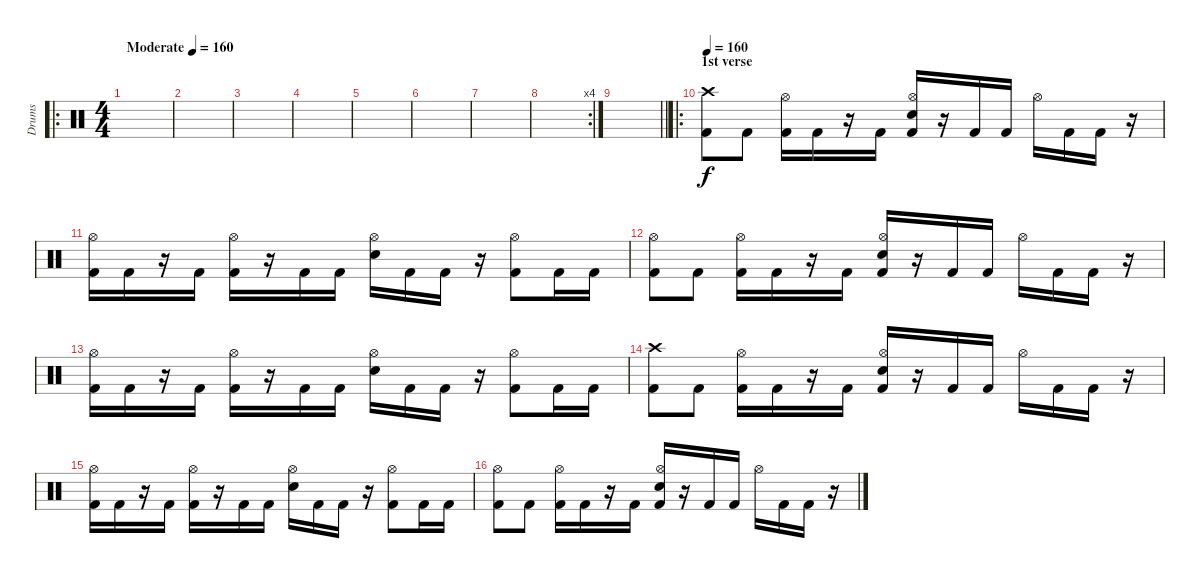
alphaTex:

\track ("Drums" "Drums") {instrument percussion}
\staff {score}
\articulation defaults
\ro
\ts (4 4)
\tempo (160 "Moderate")
\clef neutral
\ks c
|
|
|
|
|
|
|
\rc 4
|
\barLineRight lightlight
|
\ro
\section ("" "1st verse")
\tempo 160
("Crash high (hit)" "Kick (hit) 2").8 "Kick (hit) 2".8 ("Hi-Hat (open)" "Kick (hit) 2").16 "Kick (hit) 2".16 r.16 "Kick (hit) 2".16 ("Hi-Hat (open)" "Electric Snare (hit)" "Kick (hit) 2").16 r.16 "Kick (hit) 2".16 "Kick (hit) 2".16 "Hi-Hat (open)".16 "Kick (hit) 2".16 "Kick (hit) 2".16 r.16 |
("Hi-Hat (open)" "Kick (hit) 2").16 "Kick (hit) 2".16 r.16 "Kick (hit) 2".16 ("Hi-Hat (open)" "Kick (hit) 2").16 r.16 "Kick (hit) 2".16 "Kick (hit) 2".16 ("Electric Snare (hit)" "Hi-Hat (open)").16 "Kick (hit) 2".16 "Kick (hit) 2".16 r.16 ("Hi-Hat (open)" "Kick (hit) 2").8 "Kick (hit) 2".16 "Kick (hit) 2".16 |
("Hi-Hat (open)" "Kick (hit) 2").8 "Kick (hit) 2".8 ("Hi-Hat (open)" "Kick (hit) 2").16 "Kick (hit) 2".16 r.16 "Kick (hit) 2".16 ("Hi-Hat (open)" "Electric Snare (hit)" "Kick (hit) 2").16 r.16 "Kick (hit) 2".16 "Kick (hit) 2".16 "Hi-Hat (open)".16 "Kick (hit) 2".16 "Kick (hit) 2".16 r.16 |
("Hi-Hat (open)" "Kick (hit) 2").16 "Kick (hit) 2".16 r.16 "Kick (hit) 2".16 ("Hi-Hat (open)" "Kick (hit) 2").16 r.16 "Kick (hit) 2".16 "Kick (hit) 2".16 ("Electric Snare (hit)" "Hi-Hat (open)").16 "Kick (hit) 2".16 "Kick (hit) 2".16 r.16 ("Hi-Hat (open)" "Kick (hit) 2").8 "Kick (hit) 2".16 "Kick (hit) 2".16 |
("Crash high (hit)" "Kick (hit) 2").8 "Kick (hit) 2".8 ("Hi-Hat (open)" "Kick (hit) 2").16 "Kick (hit) 2".16 r.16 "Kick (hit) 2".16 ("Hi-Hat (open)" "Electric Snare (hit)" "Kick (hit) 2").16 r.16 "Kick (hit) 2".16 "Kick (hit) 2".16 "Hi-Hat (open)".16 "Kick (hit) 2".16 "Kick (hit) 2".16 r.16 |
("Hi-Hat (open)" "Kick (hit) 2").16 "Kick (hit) 2".16 r.16 "Kick (hit) 2".16 ("Hi-Hat (open)" "Kick (hit) 2").16 r.16 "Kick (hit) 2".16 "Kick (hit) 2".16 ("Electric Snare (hit)" "Hi-Hat (open)").16 "Kick (hit) 2".16 "Kick (hit) 2".16 r.16 ("Hi-Hat (open)" "Kick (hit) 2").8 "Kick (hit) 2".16 "Kick (hit) 2".16 |
("Hi-Hat (open)" "Kick (hit) 2").8 "Kick (hit) 2".8 ("Hi-Hat (open)" "Kick (hit) 2").16 "Kick (hit) 2".16 r.16 "Kick (hit) 2".16 ("Hi-Hat (open)" "Electric Snare (hit)" "Kick (hit) 2").16 r.16 "Kick (hit) 2".16 "Kick (hit) 2".16 "Hi-Hat (open)".16 "Kick (hit) 2".16 "Kick (hit) 2".16 r.16
